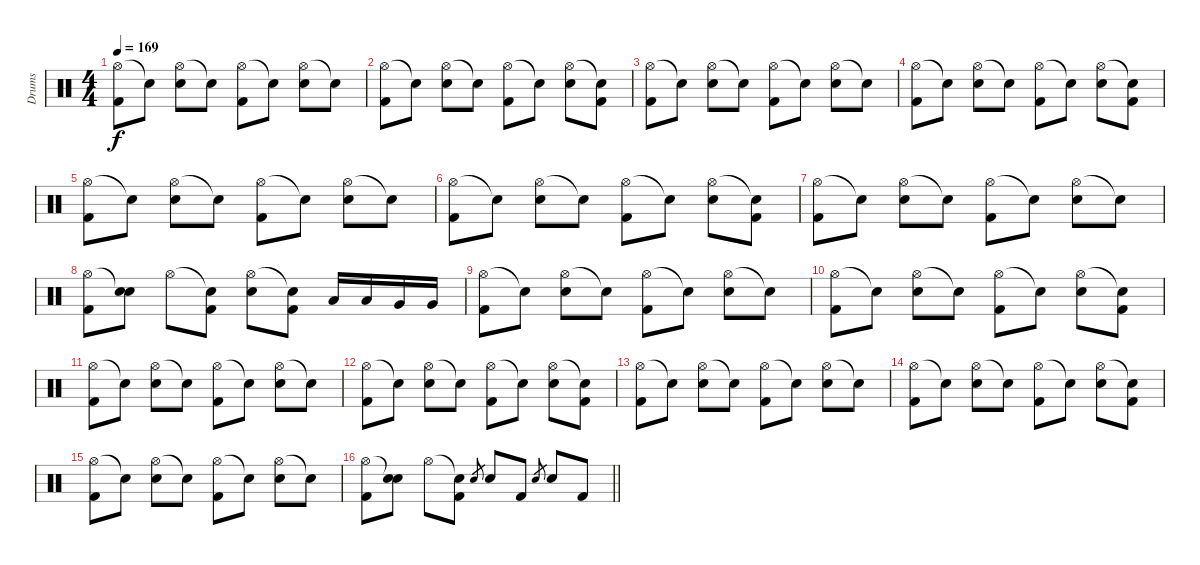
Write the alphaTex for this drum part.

\track ("Drums" "Drums") {instrument percussion}
\staff {score}
\articulation defaults
\ts (4 4)
\tempo 169
\clef neutral
\ks c
("Hi-Hat (open)" "Kick (hit) 2").8{dy f} "Snare (hit)"{t}.8 ("Hi-Hat (open)" "Electric Snare (hit)").8 "Snare (hit)"{t}.8 ("Hi-Hat (open)" "Kick (hit) 2").8 "Snare (hit)"{t}.8 ("Hi-Hat (open)" "Electric Snare (hit)").8 "Snare (hit)"{t}.8 |
("Hi-Hat (open)" "Kick (hit) 2").8 "Snare (hit)"{t}.8 ("Hi-Hat (open)" "Electric Snare (hit)").8 "Snare (hit)"{t}.8 ("Hi-Hat (open)" "Kick (hit) 2").8 "Snare (hit)"{t}.8 ("Hi-Hat (open)" "Electric Snare (hit)").8 ("Snare (hit)"{t} "Kick (hit) 2").8 |
("Hi-Hat (open)" "Kick (hit) 2").8 "Snare (hit)"{t}.8 ("Hi-Hat (open)" "Electric Snare (hit)").8 "Snare (hit)"{t}.8 ("Hi-Hat (open)" "Kick (hit) 2").8 "Snare (hit)"{t}.8 ("Hi-Hat (open)" "Electric Snare (hit)").8 "Snare (hit)"{t}.8 |
("Hi-Hat (open)" "Kick (hit) 2").8 "Snare (hit)"{t}.8 ("Hi-Hat (open)" "Electric Snare (hit)").8 "Snare (hit)"{t}.8 ("Hi-Hat (open)" "Kick (hit) 2").8 "Snare (hit)"{t}.8 ("Hi-Hat (open)" "Electric Snare (hit)").8 ("Snare (hit)"{t} "Kick (hit) 2").8 |
("Hi-Hat (open)" "Kick (hit) 2").8 "Snare (hit)"{t}.8 ("Hi-Hat (open)" "Electric Snare (hit)").8 "Snare (hit)"{t}.8 ("Hi-Hat (open)" "Kick (hit) 2").8 "Snare (hit)"{t}.8 ("Hi-Hat (open)" "Electric Snare (hit)").8 "Snare (hit)"{t}.8 |
("Hi-Hat (open)" "Kick (hit) 2").8 "Snare (hit)"{t}.8 ("Hi-Hat (open)" "Electric Snare (hit)").8 "Snare (hit)"{t}.8 ("Hi-Hat (open)" "Kick (hit) 2").8 "Snare (hit)"{t}.8 ("Hi-Hat (open)" "Electric Snare (hit)").8 ("Snare (hit)"{t} "Kick (hit) 2").8 |
("Hi-Hat (open)" "Kick (hit) 2").8 "Snare (hit)"{t}.8 ("Hi-Hat (open)" "Electric Snare (hit)").8 "Snare (hit)"{t}.8 ("Hi-Hat (open)" "Kick (hit) 2").8 "Snare (hit)"{t}.8 ("Hi-Hat (open)" "Electric Snare (hit)").8 "Snare (hit)"{t}.8 |
("Hi-Hat (open)" "Kick (hit) 2").8 ("Snare (hit)"{t} "Electric Snare (hit)").8 "Hi-Hat (open)".8 ("Snare (hit)"{t} "Kick (hit) 2").8 ("Hi-Hat (open)" "Electric Snare (hit)").8 ("Snare (hit)"{t} "Kick (hit) 2").8 "Low Tom (hit)".16 "Low Tom (hit)".16 "Very Low Tom (hit)".16 "Very Low Tom (hit)".16 |
("Hi-Hat (open)" "Kick (hit) 2").8 "Snare (hit)"{t}.8 ("Hi-Hat (open)" "Electric Snare (hit)").8 "Snare (hit)"{t}.8 ("Hi-Hat (open)" "Kick (hit) 2").8 "Snare (hit)"{t}.8 ("Hi-Hat (open)" "Electric Snare (hit)").8 "Snare (hit)"{t}.8 |
("Hi-Hat (open)" "Kick (hit) 2").8 "Snare (hit)"{t}.8 ("Hi-Hat (open)" "Electric Snare (hit)").8 "Snare (hit)"{t}.8 ("Hi-Hat (open)" "Kick (hit) 2").8 "Snare (hit)"{t}.8 ("Hi-Hat (open)" "Electric Snare (hit)").8 ("Snare (hit)"{t} "Kick (hit) 2").8 |
("Hi-Hat (open)" "Kick (hit) 2").8 "Snare (hit)"{t}.8 ("Hi-Hat (open)" "Electric Snare (hit)").8 "Snare (hit)"{t}.8 ("Hi-Hat (open)" "Kick (hit) 2").8 "Snare (hit)"{t}.8 ("Hi-Hat (open)" "Electric Snare (hit)").8 "Snare (hit)"{t}.8 |
("Hi-Hat (open)" "Kick (hit) 2").8 "Snare (hit)"{t}.8 ("Hi-Hat (open)" "Electric Snare (hit)").8 "Snare (hit)"{t}.8 ("Hi-Hat (open)" "Kick (hit) 2").8 "Snare (hit)"{t}.8 ("Hi-Hat (open)" "Electric Snare (hit)").8 ("Snare (hit)"{t} "Kick (hit) 2").8 |
("Hi-Hat (open)" "Kick (hit) 2").8 "Snare (hit)"{t}.8 ("Hi-Hat (open)" "Electric Snare (hit)").8 "Snare (hit)"{t}.8 ("Hi-Hat (open)" "Kick (hit) 2").8 "Snare (hit)"{t}.8 ("Hi-Hat (open)" "Electric Snare (hit)").8 "Snare (hit)"{t}.8 |
("Hi-Hat (open)" "Kick (hit) 2").8 "Snare (hit)"{t}.8 ("Hi-Hat (open)" "Electric Snare (hit)").8 "Snare (hit)"{t}.8 ("Hi-Hat (open)" "Kick (hit) 2").8 "Snare (hit)"{t}.8 ("Hi-Hat (open)" "Electric Snare (hit)").8 ("Snare (hit)"{t} "Kick (hit) 2").8 |
("Hi-Hat (open)" "Kick (hit) 2").8 "Snare (hit)"{t}.8 ("Hi-Hat (open)" "Electric Snare (hit)").8 "Snare (hit)"{t}.8 ("Hi-Hat (open)" "Kick (hit) 2").8 "Snare (hit)"{t}.8 ("Hi-Hat (open)" "Electric Snare (hit)").8 "Snare (hit)"{t}.8 |
\barLineRight lightlight
("Hi-Hat (open)" "Kick (hit) 2").8 ("Snare (hit)"{t} "Electric Snare (hit)").8 "Hi-Hat (open)".8 ("Snare (hit)"{t} "Kick (hit) 2").8 "Electric Snare (hit)".8{gr} "Electric Snare (hit)".8 "Kick (hit) 2".8 "Electric Snare (hit)".8{gr} "Electric Snare (hit)".8 "Kick (hit) 2".8
